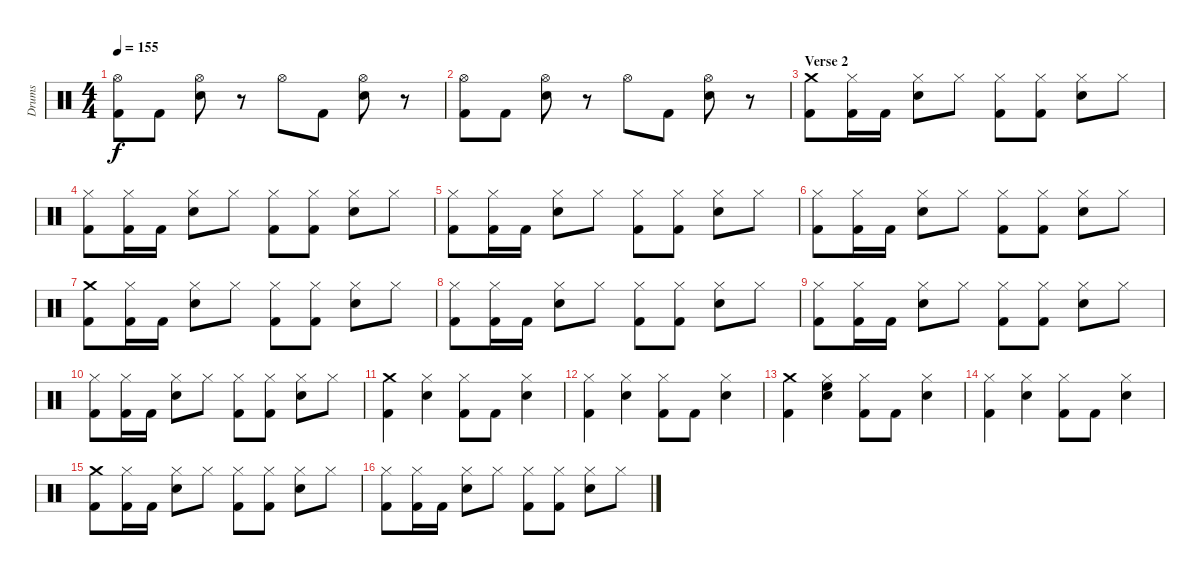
\track ("Drums" "Drums") {instrument percussion}
\staff {score}
\articulation defaults
\ts (4 4)
\tempo 155
\clef neutral
\ks c
("Hi-Hat (open)" "Kick (hit) 2").8{dy f} "Kick (hit) 2".8 ("Hi-Hat (open)" "Snare (hit) 2").8 r.8 "Hi-Hat (open)".8 "Kick (hit) 2".8 ("Hi-Hat (open)" "Snare (hit) 2").8 r.8 |
("Hi-Hat (open)" "Kick (hit) 2").8 "Kick (hit) 2".8 ("Hi-Hat (open)" "Snare (hit) 2").8 r.8 "Hi-Hat (open)".8 "Kick (hit) 2".8 ("Hi-Hat (open)" "Snare (hit) 2").8 r.8 |
\section ("" "Verse 2")
("Crash medium (hit)" "Kick (hit) 2").8 ("Hi-Hat (closed)" "Kick (hit) 2").16 "Kick (hit) 2".16 ("Hi-Hat (closed)" "Snare (hit) 2").8 "Hi-Hat (closed)".8 ("Hi-Hat (closed)" "Kick (hit) 2").8 ("Hi-Hat (closed)" "Kick (hit) 2").8 ("Hi-Hat (closed)" "Snare (hit) 2").8 "Hi-Hat (closed)".8 |
("Hi-Hat (closed)" "Kick (hit) 2").8 ("Hi-Hat (closed)" "Kick (hit) 2").16 "Kick (hit) 2".16 ("Hi-Hat (closed)" "Snare (hit) 2").8 "Hi-Hat (closed)".8 ("Hi-Hat (closed)" "Kick (hit) 2").8 ("Hi-Hat (closed)" "Kick (hit) 2").8 ("Hi-Hat (closed)" "Snare (hit) 2").8 "Hi-Hat (closed)".8 |
("Hi-Hat (closed)" "Kick (hit) 2").8 ("Hi-Hat (closed)" "Kick (hit) 2").16 "Kick (hit) 2".16 ("Hi-Hat (closed)" "Snare (hit) 2").8 "Hi-Hat (closed)".8 ("Hi-Hat (closed)" "Kick (hit) 2").8 ("Hi-Hat (closed)" "Kick (hit) 2").8 ("Hi-Hat (closed)" "Snare (hit) 2").8 "Hi-Hat (closed)".8 |
("Hi-Hat (closed)" "Kick (hit) 2").8 ("Hi-Hat (closed)" "Kick (hit) 2").16 "Kick (hit) 2".16 ("Hi-Hat (closed)" "Snare (hit) 2").8 "Hi-Hat (closed)".8 ("Hi-Hat (closed)" "Kick (hit) 2").8 ("Hi-Hat (closed)" "Kick (hit) 2").8 ("Hi-Hat (closed)" "Snare (hit) 2").8 "Hi-Hat (closed)".8 |
("Crash medium (hit)" "Kick (hit) 2").8 ("Hi-Hat (closed)" "Kick (hit) 2").16 "Kick (hit) 2".16 ("Hi-Hat (closed)" "Snare (hit) 2").8 "Hi-Hat (closed)".8 ("Hi-Hat (closed)" "Kick (hit) 2").8 ("Hi-Hat (closed)" "Kick (hit) 2").8 ("Hi-Hat (closed)" "Snare (hit) 2").8 "Hi-Hat (closed)".8 |
("Hi-Hat (closed)" "Kick (hit) 2").8 ("Hi-Hat (closed)" "Kick (hit) 2").16 "Kick (hit) 2".16 ("Hi-Hat (closed)" "Snare (hit) 2").8 "Hi-Hat (closed)".8 ("Hi-Hat (closed)" "Kick (hit) 2").8 ("Hi-Hat (closed)" "Kick (hit) 2").8 ("Hi-Hat (closed)" "Snare (hit) 2").8 "Hi-Hat (closed)".8 |
("Hi-Hat (closed)" "Kick (hit) 2").8 ("Hi-Hat (closed)" "Kick (hit) 2").16 "Kick (hit) 2".16 ("Hi-Hat (closed)" "Snare (hit) 2").8 "Hi-Hat (closed)".8 ("Hi-Hat (closed)" "Kick (hit) 2").8 ("Hi-Hat (closed)" "Kick (hit) 2").8 ("Hi-Hat (closed)" "Snare (hit) 2").8 "Hi-Hat (closed)".8 |
("Hi-Hat (closed)" "Kick (hit) 2").8 ("Hi-Hat (closed)" "Kick (hit) 2").16 "Kick (hit) 2".16 ("Hi-Hat (closed)" "Snare (hit) 2").8 "Hi-Hat (closed)".8 ("Hi-Hat (closed)" "Kick (hit) 2").8 ("Hi-Hat (closed)" "Kick (hit) 2").8 ("Hi-Hat (closed)" "Snare (hit) 2").8 "Hi-Hat (closed)".8 |
("Crash medium (hit)" "Kick (hit) 2").4 ("Hi-Hat (closed)" "Snare (hit) 2").4 ("Hi-Hat (closed)" "Kick (hit) 2").8 "Kick (hit) 2".8 ("Hi-Hat (closed)" "Snare (hit) 2").4 |
("Hi-Hat (closed)" "Kick (hit) 2").4 ("Hi-Hat (closed)" "Snare (hit) 2").4 ("Hi-Hat (closed)" "Kick (hit) 2").8 "Kick (hit) 2".8 ("Hi-Hat (closed)" "Snare (hit) 2").4 |
("Crash medium (hit)" "Kick (hit) 2").4 ("Hi-Hat (closed)" "Snare (hit) 2" "High Floor Tom (hit)").4 ("Hi-Hat (closed)" "Kick (hit) 2").8 "Kick (hit) 2".8 ("Hi-Hat (closed)" "Snare (hit) 2").4 |
("Hi-Hat (closed)" "Kick (hit) 2").4 ("Hi-Hat (closed)" "Snare (hit) 2").4 ("Hi-Hat (closed)" "Kick (hit) 2").8 "Kick (hit) 2".8 ("Hi-Hat (closed)" "Snare (hit) 2").4 |
("Crash medium (hit)" "Kick (hit) 2").8 ("Hi-Hat (closed)" "Kick (hit) 2").16 "Kick (hit) 2".16 ("Hi-Hat (closed)" "Snare (hit) 2").8 "Hi-Hat (closed)".8 ("Hi-Hat (closed)" "Kick (hit) 2").8 ("Hi-Hat (closed)" "Kick (hit) 2").8 ("Hi-Hat (closed)" "Snare (hit) 2").8 "Hi-Hat (closed)".8 |
("Hi-Hat (closed)" "Kick (hit) 2").8 ("Hi-Hat (closed)" "Kick (hit) 2").16 "Kick (hit) 2".16 ("Hi-Hat (closed)" "Snare (hit) 2").8 "Hi-Hat (closed)".8 ("Hi-Hat (closed)" "Kick (hit) 2").8 ("Hi-Hat (closed)" "Kick (hit) 2").8 ("Hi-Hat (closed)" "Snare (hit) 2").8 "Hi-Hat (closed)".8
